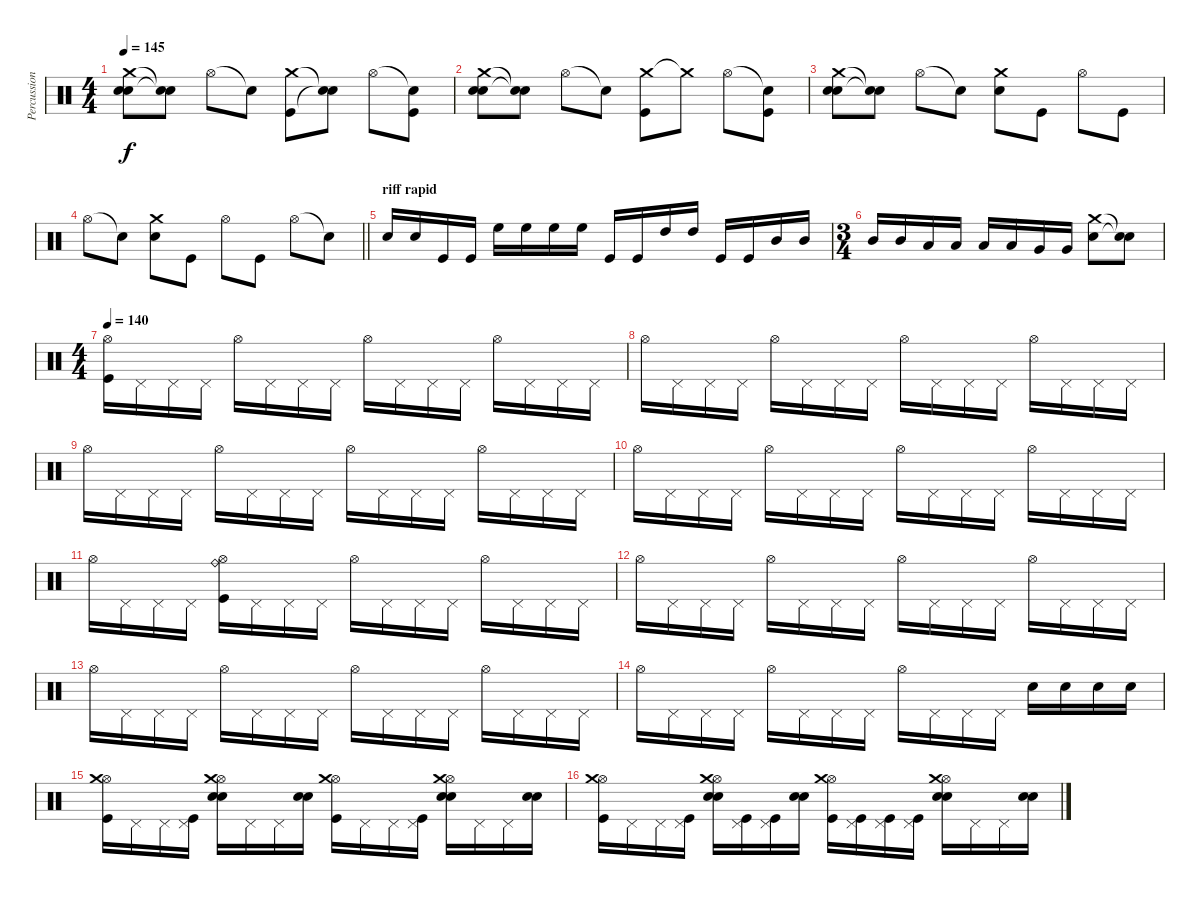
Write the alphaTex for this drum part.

\track ("Percussions" "Percussion") {instrument percussion}
\staff {score}
\articulation defaults
\ts (4 4)
\tempo 145
\clef neutral
\ks c
("Crash medium (hit)" "Electric Snare (hit)" "Electric Snare (hit)").8{dy f} ("Snare (hit)"{t} "Snare (hit)"{t}).8 "Hi-Hat (open)".8 "Snare (hit)"{t}.8 ("Crash medium (hit)" "Kick (hit)").8 ("Snare (hit)"{t} "Snare (hit)"{t}).8 "Hi-Hat (open)".8 ("Snare (hit)"{t} "Kick (hit)").8 |
("Crash medium (hit)" "Electric Snare (hit)" "Electric Snare (hit)").8 ("Snare (hit)"{t} "Snare (hit)"{t}).8 "Hi-Hat (open)".8 "Snare (hit)"{t}.8 ("Crash medium (hit)" "Kick (hit)").8 "Crash medium (hit)"{t}.8 "Hi-Hat (open)".8 ("Snare (hit)"{t} "Kick (hit)").8 |
("Crash medium (hit)" "Electric Snare (hit)" "Electric Snare (hit)").8 ("Snare (hit)"{t} "Snare (hit)"{t}).8 "Hi-Hat (open)".8 "Snare (hit)"{t}.8 ("Crash medium (hit)" "Electric Snare (hit)").8 "Kick (hit)".8 "Hi-Hat (open)".8 "Kick (hit)".8 |
\barLineRight lightlight "Hi-Hat (open)".8 "Snare (hit)"{t}.8
("Crash medium (hit)" "Electric Snare (hit)").8 "Kick (hit)".8 "Hi-Hat (open)".8 "Kick (hit)".8 "Hi-Hat (open)".8 "Snare (hit)"{t}.8 |
\section ("" "riff rapid")
"Electric Snare (hit)".16{volume 12} "Electric Snare (hit)".16 "Kick (hit)".16{volume 16} "Kick (hit)".16 "High Floor Tom (hit)".16{volume 12} "High Floor Tom (hit)".16 "High Floor Tom (hit)".16 "High Floor Tom (hit)".16 "Kick (hit)".16{volume 16} "Kick (hit)".16 "High Tom (hit)".16{volume 12} "High Tom (hit)".16 "Kick (hit)".16{volume 16} "Kick (hit)".16 "Mid Tom (hit)".16{volume 12} "Mid Tom (hit)".16 |
\ts (3 4)
"Mid Tom (hit)".16{volume 12} "Mid Tom (hit)".16 "Low Tom (hit)".16 "Low Tom (hit)".16 "Low Tom (hit)".16 "Low Tom (hit)".16 "Very Low Tom (hit)".16 "Very Low Tom (hit)".16 ("Crash medium (hit)" "Electric Snare (hit)").8{volume 16} ("Snare (hit)"{t} "Snare (hit)"{t}).8 |
\ts (4 4)
\tempo 140
("Hi-Hat (open)" "Kick (hit)").16 "Pedal Hi-Hat (hit)".16 "Pedal Hi-Hat (hit)".16 "Pedal Hi-Hat (hit)".16 "Hi-Hat (open)".16 "Pedal Hi-Hat (hit)".16 "Pedal Hi-Hat (hit)".16 "Pedal Hi-Hat (hit)".16 "Hi-Hat (open)".16 "Pedal Hi-Hat (hit)".16 "Pedal Hi-Hat (hit)".16 "Pedal Hi-Hat (hit)".16 "Hi-Hat (open)".16 "Pedal Hi-Hat (hit)".16 "Pedal Hi-Hat (hit)".16 "Pedal Hi-Hat (hit)".16 |
"Hi-Hat (open)".16 "Pedal Hi-Hat (hit)".16 "Pedal Hi-Hat (hit)".16 "Pedal Hi-Hat (hit)".16 "Hi-Hat (open)".16 "Pedal Hi-Hat (hit)".16 "Pedal Hi-Hat (hit)".16 "Pedal Hi-Hat (hit)".16 "Hi-Hat (open)".16 "Pedal Hi-Hat (hit)".16 "Pedal Hi-Hat (hit)".16 "Pedal Hi-Hat (hit)".16 "Hi-Hat (open)".16 "Pedal Hi-Hat (hit)".16 "Pedal Hi-Hat (hit)".16 "Pedal Hi-Hat (hit)".16 |
"Hi-Hat (open)".16 "Pedal Hi-Hat (hit)".16 "Pedal Hi-Hat (hit)".16 "Pedal Hi-Hat (hit)".16 "Hi-Hat (open)".16 "Pedal Hi-Hat (hit)".16 "Pedal Hi-Hat (hit)".16 "Pedal Hi-Hat (hit)".16 "Hi-Hat (open)".16 "Pedal Hi-Hat (hit)".16 "Pedal Hi-Hat (hit)".16 "Pedal Hi-Hat (hit)".16 "Hi-Hat (open)".16 "Pedal Hi-Hat (hit)".16 "Pedal Hi-Hat (hit)".16 "Pedal Hi-Hat (hit)".16 |
"Hi-Hat (open)".16 "Pedal Hi-Hat (hit)".16 "Pedal Hi-Hat (hit)".16 "Pedal Hi-Hat (hit)".16 "Hi-Hat (open)".16 "Pedal Hi-Hat (hit)".16 "Pedal Hi-Hat (hit)".16 "Pedal Hi-Hat (hit)".16 "Hi-Hat (open)".16 "Pedal Hi-Hat (hit)".16 "Pedal Hi-Hat (hit)".16 "Pedal Hi-Hat (hit)".16 "Hi-Hat (open)".16 "Pedal Hi-Hat (hit)".16 "Pedal Hi-Hat (hit)".16 "Pedal Hi-Hat (hit)".16 |
"Hi-Hat (open)".16 "Pedal Hi-Hat (hit)".16 "Pedal Hi-Hat (hit)".16 "Pedal Hi-Hat (hit)".16 ("Ride (bell)" "Hi-Hat (open)" "Kick (hit)").16 "Pedal Hi-Hat (hit)".16 "Pedal Hi-Hat (hit)".16 "Pedal Hi-Hat (hit)".16 "Hi-Hat (open)".16 "Pedal Hi-Hat (hit)".16 "Pedal Hi-Hat (hit)".16 "Pedal Hi-Hat (hit)".16 "Hi-Hat (open)".16 "Pedal Hi-Hat (hit)".16 "Pedal Hi-Hat (hit)".16 "Pedal Hi-Hat (hit)".16 |
"Hi-Hat (open)".16 "Pedal Hi-Hat (hit)".16 "Pedal Hi-Hat (hit)".16 "Pedal Hi-Hat (hit)".16 "Hi-Hat (open)".16 "Pedal Hi-Hat (hit)".16 "Pedal Hi-Hat (hit)".16 "Pedal Hi-Hat (hit)".16 "Hi-Hat (open)".16 "Pedal Hi-Hat (hit)".16 "Pedal Hi-Hat (hit)".16 "Pedal Hi-Hat (hit)".16 "Hi-Hat (open)".16 "Pedal Hi-Hat (hit)".16 "Pedal Hi-Hat (hit)".16 "Pedal Hi-Hat (hit)".16 |
"Hi-Hat (open)".16 "Pedal Hi-Hat (hit)".16 "Pedal Hi-Hat (hit)".16 "Pedal Hi-Hat (hit)".16 "Hi-Hat (open)".16 "Pedal Hi-Hat (hit)".16 "Pedal Hi-Hat (hit)".16 "Pedal Hi-Hat (hit)".16 "Hi-Hat (open)".16 "Pedal Hi-Hat (hit)".16 "Pedal Hi-Hat (hit)".16 "Pedal Hi-Hat (hit)".16 "Hi-Hat (open)".16 "Pedal Hi-Hat (hit)".16 "Pedal Hi-Hat (hit)".16 "Pedal Hi-Hat (hit)".16 |
"Hi-Hat (open)".16 "Pedal Hi-Hat (hit)".16 "Pedal Hi-Hat (hit)".16 "Pedal Hi-Hat (hit)".16 "Hi-Hat (open)".16 "Pedal Hi-Hat (hit)".16 "Pedal Hi-Hat (hit)".16 "Pedal Hi-Hat (hit)".16 "Hi-Hat (open)".16 "Pedal Hi-Hat (hit)".16 "Pedal Hi-Hat (hit)".16 "Pedal Hi-Hat (hit)".16 "Electric Snare (hit)".16 "Electric Snare (hit)".16 "Electric Snare (hit)".16 "Electric Snare (hit)".16 |
("Hi-Hat (open)" "Crash medium (hit)" "Kick (hit)").16 "Pedal Hi-Hat (hit)".16 "Pedal Hi-Hat (hit)".16 ("Pedal Hi-Hat (hit)" "Kick (hit)").16 ("Hi-Hat (open)" "Electric Snare (hit)" "Electric Snare (hit)" "Crash medium (hit)").16 "Pedal Hi-Hat (hit)".16 "Pedal Hi-Hat (hit)".16 ("Electric Snare (hit)" "Electric Snare (hit)").16 ("Hi-Hat (open)" "Crash medium (hit)" "Kick (hit)").16 "Pedal Hi-Hat (hit)".16 "Pedal Hi-Hat (hit)".16 ("Pedal Hi-Hat (hit)" "Kick (hit)").16 ("Hi-Hat (open)" "Electric Snare (hit)" "Electric Snare (hit)" "Crash medium (hit)").16 "Pedal Hi-Hat (hit)".16 "Pedal Hi-Hat (hit)".16 ("Electric Snare (hit)" "Electric Snare (hit)").16 |
("Hi-Hat (open)" "Crash medium (hit)" "Kick (hit)").16 "Pedal Hi-Hat (hit)".16 "Pedal Hi-Hat (hit)".16 ("Pedal Hi-Hat (hit)" "Kick (hit)").16 ("Hi-Hat (open)" "Electric Snare (hit)" "Electric Snare (hit)" "Crash medium (hit)").16 ("Pedal Hi-Hat (hit)" "Kick (hit)").16 ("Pedal Hi-Hat (hit)" "Kick (hit)").16 ("Electric Snare (hit)" "Electric Snare (hit)").16 ("Hi-Hat (open)" "Crash medium (hit)" "Kick (hit)").16 ("Pedal Hi-Hat (hit)" "Kick (hit)").16 ("Pedal Hi-Hat (hit)" "Kick (hit)").16 ("Pedal Hi-Hat (hit)" "Kick (hit)").16 ("Hi-Hat (open)" "Electric Snare (hit)" "Electric Snare (hit)" "Crash medium (hit)").16 "Pedal Hi-Hat (hit)".16 "Pedal Hi-Hat (hit)".16 ("Electric Snare (hit)" "Electric Snare (hit)").16
